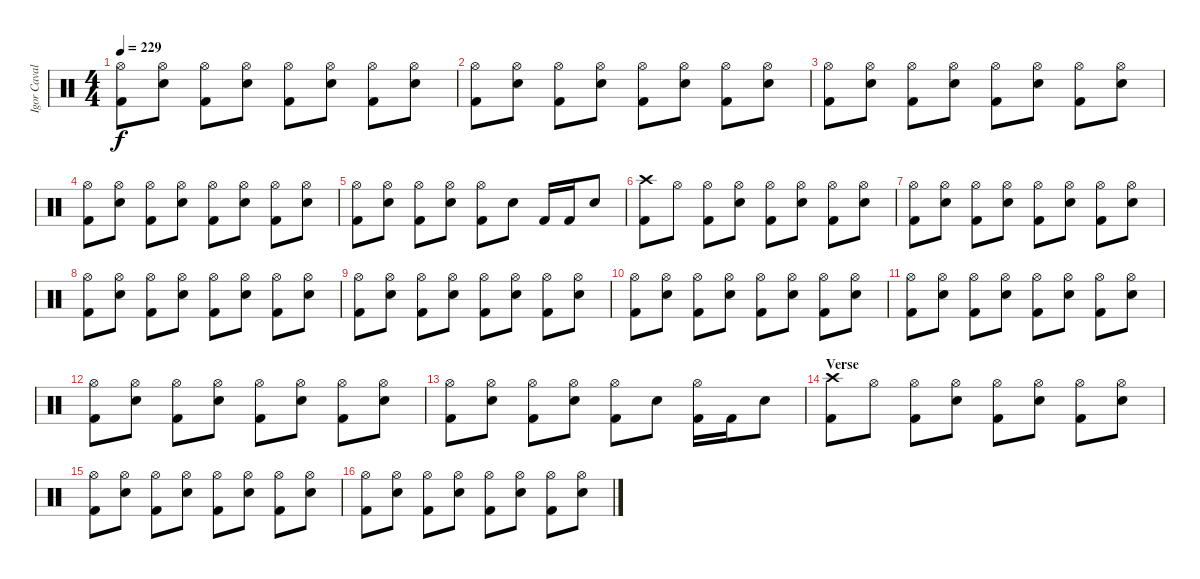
\track ("Igor Cavalera" "Igor Caval") {instrument percussion}
\staff {score}
\articulation defaults
\ts (4 4)
\tempo 229
\clef neutral
\ks c
("Kick (hit) 2" "Hi-Hat (open)").8{dy f} ("Snare (hit) 2" "Hi-Hat (open)").8 ("Kick (hit) 2" "Hi-Hat (open)").8 ("Snare (hit) 2" "Hi-Hat (open)").8 ("Kick (hit) 2" "Hi-Hat (open)").8 ("Snare (hit) 2" "Hi-Hat (open)").8 ("Kick (hit) 2" "Hi-Hat (open)").8 ("Snare (hit) 2" "Hi-Hat (open)").8 |
("Kick (hit) 2" "Hi-Hat (open)").8 ("Snare (hit) 2" "Hi-Hat (open)").8 ("Kick (hit) 2" "Hi-Hat (open)").8 ("Snare (hit) 2" "Hi-Hat (open)").8 ("Kick (hit) 2" "Hi-Hat (open)").8 ("Snare (hit) 2" "Hi-Hat (open)").8 ("Kick (hit) 2" "Hi-Hat (open)").8 ("Snare (hit) 2" "Hi-Hat (open)").8 |
("Kick (hit) 2" "Hi-Hat (open)").8 ("Snare (hit) 2" "Hi-Hat (open)").8 ("Kick (hit) 2" "Hi-Hat (open)").8 ("Snare (hit) 2" "Hi-Hat (open)").8 ("Kick (hit) 2" "Hi-Hat (open)").8 ("Snare (hit) 2" "Hi-Hat (open)").8 ("Kick (hit) 2" "Hi-Hat (open)").8 ("Snare (hit) 2" "Hi-Hat (open)").8 |
("Kick (hit) 2" "Hi-Hat (open)").8 ("Snare (hit) 2" "Hi-Hat (open)").8 ("Kick (hit) 2" "Hi-Hat (open)").8 ("Snare (hit) 2" "Hi-Hat (open)").8 ("Kick (hit) 2" "Hi-Hat (open)").8 ("Snare (hit) 2" "Hi-Hat (open)").8 ("Kick (hit) 2" "Hi-Hat (open)").8 ("Snare (hit) 2" "Hi-Hat (open)").8 |
("Kick (hit) 2" "Hi-Hat (open)").8 ("Snare (hit) 2" "Hi-Hat (open)").8 ("Kick (hit) 2" "Hi-Hat (open)").8 ("Snare (hit) 2" "Hi-Hat (open)").8 ("Kick (hit) 2" "Hi-Hat (open)").8 "Snare (hit) 2".8 "Kick (hit) 2".16 "Kick (hit) 2".16 "Snare (hit) 2".8 |
("Kick (hit) 2" "Crash high (hit)").8 "Hi-Hat (open)".8 ("Kick (hit) 2" "Hi-Hat (open)").8 ("Snare (hit) 2" "Hi-Hat (open)").8 ("Kick (hit) 2" "Hi-Hat (open)").8 ("Snare (hit) 2" "Hi-Hat (open)").8 ("Kick (hit) 2" "Hi-Hat (open)").8 ("Snare (hit) 2" "Hi-Hat (open)").8 |
("Kick (hit) 2" "Hi-Hat (open)").8 ("Snare (hit) 2" "Hi-Hat (open)").8 ("Kick (hit) 2" "Hi-Hat (open)").8 ("Snare (hit) 2" "Hi-Hat (open)").8 ("Kick (hit) 2" "Hi-Hat (open)").8 ("Snare (hit) 2" "Hi-Hat (open)").8 ("Kick (hit) 2" "Hi-Hat (open)").8 ("Snare (hit) 2" "Hi-Hat (open)").8 |
("Kick (hit) 2" "Hi-Hat (open)").8 ("Snare (hit) 2" "Hi-Hat (open)").8 ("Kick (hit) 2" "Hi-Hat (open)").8 ("Snare (hit) 2" "Hi-Hat (open)").8 ("Kick (hit) 2" "Hi-Hat (open)").8 ("Snare (hit) 2" "Hi-Hat (open)").8 ("Kick (hit) 2" "Hi-Hat (open)").8 ("Snare (hit) 2" "Hi-Hat (open)").8 |
("Kick (hit) 2" "Hi-Hat (open)").8 ("Snare (hit) 2" "Hi-Hat (open)").8 ("Kick (hit) 2" "Hi-Hat (open)").8 ("Snare (hit) 2" "Hi-Hat (open)").8 ("Kick (hit) 2" "Hi-Hat (open)").8 ("Snare (hit) 2" "Hi-Hat (open)").8 ("Kick (hit) 2" "Hi-Hat (open)").8 ("Snare (hit) 2" "Hi-Hat (open)").8 |
("Kick (hit) 2" "Hi-Hat (open)").8 ("Snare (hit) 2" "Hi-Hat (open)").8 ("Kick (hit) 2" "Hi-Hat (open)").8 ("Snare (hit) 2" "Hi-Hat (open)").8 ("Kick (hit) 2" "Hi-Hat (open)").8 ("Snare (hit) 2" "Hi-Hat (open)").8 ("Kick (hit) 2" "Hi-Hat (open)").8 ("Snare (hit) 2" "Hi-Hat (open)").8 |
("Kick (hit) 2" "Hi-Hat (open)").8 ("Snare (hit) 2" "Hi-Hat (open)").8 ("Kick (hit) 2" "Hi-Hat (open)").8 ("Snare (hit) 2" "Hi-Hat (open)").8 ("Kick (hit) 2" "Hi-Hat (open)").8 ("Snare (hit) 2" "Hi-Hat (open)").8 ("Kick (hit) 2" "Hi-Hat (open)").8 ("Snare (hit) 2" "Hi-Hat (open)").8 |
("Kick (hit) 2" "Hi-Hat (open)").8 ("Snare (hit) 2" "Hi-Hat (open)").8 ("Kick (hit) 2" "Hi-Hat (open)").8 ("Snare (hit) 2" "Hi-Hat (open)").8 ("Kick (hit) 2" "Hi-Hat (open)").8 ("Snare (hit) 2" "Hi-Hat (open)").8 ("Kick (hit) 2" "Hi-Hat (open)").8 ("Snare (hit) 2" "Hi-Hat (open)").8 |
("Kick (hit) 2" "Hi-Hat (open)").8 ("Snare (hit) 2" "Hi-Hat (open)").8 ("Kick (hit) 2" "Hi-Hat (open)").8 ("Snare (hit) 2" "Hi-Hat (open)").8 ("Kick (hit) 2" "Hi-Hat (open)").8 "Snare (hit) 2".8 ("Kick (hit) 2" "Hi-Hat (open)").16 "Kick (hit) 2".16 "Snare (hit) 2".8 |
\section ("" "Verse ")
("Kick (hit) 2" "Crash high (hit)").8 "Hi-Hat (open)".8 ("Kick (hit) 2" "Hi-Hat (open)").8 ("Snare (hit) 2" "Hi-Hat (open)").8 ("Kick (hit) 2" "Hi-Hat (open)").8 ("Snare (hit) 2" "Hi-Hat (open)").8 ("Kick (hit) 2" "Hi-Hat (open)").8 ("Snare (hit) 2" "Hi-Hat (open)").8 |
("Kick (hit) 2" "Hi-Hat (open)").8 ("Snare (hit) 2" "Hi-Hat (open)").8 ("Kick (hit) 2" "Hi-Hat (open)").8 ("Snare (hit) 2" "Hi-Hat (open)").8 ("Kick (hit) 2" "Hi-Hat (open)").8 ("Snare (hit) 2" "Hi-Hat (open)").8 ("Kick (hit) 2" "Hi-Hat (open)").8 ("Snare (hit) 2" "Hi-Hat (open)").8 |
("Kick (hit) 2" "Hi-Hat (open)").8 ("Snare (hit) 2" "Hi-Hat (open)").8 ("Kick (hit) 2" "Hi-Hat (open)").8 ("Snare (hit) 2" "Hi-Hat (open)").8 ("Kick (hit) 2" "Hi-Hat (open)").8 ("Snare (hit) 2" "Hi-Hat (open)").8 ("Kick (hit) 2" "Hi-Hat (open)").8 ("Snare (hit) 2" "Hi-Hat (open)").8
